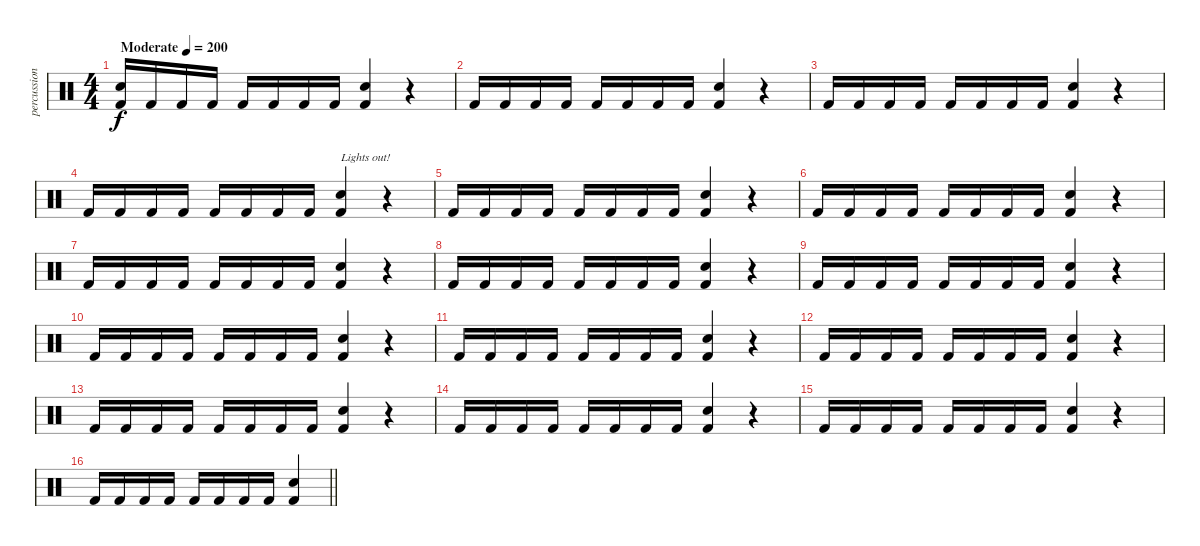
\track ("percussion" "percussion") {instrument percussion}
\staff {score}
\articulation defaults
\ts (4 4)
\tempo (200 "Moderate")
\clef neutral
\ks c
("Kick (hit) 2" "Electric Snare (hit)").16{dy f} "Kick (hit) 2".16 "Kick (hit) 2".16 "Kick (hit) 2".16 "Kick (hit) 2".16 "Kick (hit) 2".16 "Kick (hit) 2".16 "Kick (hit) 2".16 ("Kick (hit) 2" "Electric Snare (hit)").4 r.4 |
"Kick (hit) 2".16 "Kick (hit) 2".16 "Kick (hit) 2".16 "Kick (hit) 2".16 "Kick (hit) 2".16 "Kick (hit) 2".16 "Kick (hit) 2".16 "Kick (hit) 2".16 ("Kick (hit) 2" "Electric Snare (hit)").4 r.4 |
"Kick (hit) 2".16 "Kick (hit) 2".16 "Kick (hit) 2".16 "Kick (hit) 2".16 "Kick (hit) 2".16 "Kick (hit) 2".16 "Kick (hit) 2".16 "Kick (hit) 2".16 ("Kick (hit) 2" "Electric Snare (hit)").4 r.4 |
"Kick (hit) 2".16 "Kick (hit) 2".16 "Kick (hit) 2".16 "Kick (hit) 2".16 "Kick (hit) 2".16 "Kick (hit) 2".16 "Kick (hit) 2".16 "Kick (hit) 2".16 ("Kick (hit) 2" "Electric Snare (hit)").4{txt "Lights out!"} r.4 |
"Kick (hit) 2".16 "Kick (hit) 2".16 "Kick (hit) 2".16 "Kick (hit) 2".16 "Kick (hit) 2".16 "Kick (hit) 2".16 "Kick (hit) 2".16 "Kick (hit) 2".16 ("Kick (hit) 2" "Electric Snare (hit)").4 r.4 |
"Kick (hit) 2".16 "Kick (hit) 2".16 "Kick (hit) 2".16 "Kick (hit) 2".16 "Kick (hit) 2".16 "Kick (hit) 2".16 "Kick (hit) 2".16 "Kick (hit) 2".16 ("Kick (hit) 2" "Electric Snare (hit)").4 r.4 |
"Kick (hit) 2".16 "Kick (hit) 2".16 "Kick (hit) 2".16 "Kick (hit) 2".16 "Kick (hit) 2".16 "Kick (hit) 2".16 "Kick (hit) 2".16 "Kick (hit) 2".16 ("Kick (hit) 2" "Electric Snare (hit)").4 r.4 |
"Kick (hit) 2".16 "Kick (hit) 2".16 "Kick (hit) 2".16 "Kick (hit) 2".16 "Kick (hit) 2".16 "Kick (hit) 2".16 "Kick (hit) 2".16 "Kick (hit) 2".16 ("Kick (hit) 2" "Electric Snare (hit)").4 r.4 |
"Kick (hit) 2".16 "Kick (hit) 2".16 "Kick (hit) 2".16 "Kick (hit) 2".16 "Kick (hit) 2".16 "Kick (hit) 2".16 "Kick (hit) 2".16 "Kick (hit) 2".16 ("Kick (hit) 2" "Electric Snare (hit)").4 r.4 |
"Kick (hit) 2".16 "Kick (hit) 2".16 "Kick (hit) 2".16 "Kick (hit) 2".16 "Kick (hit) 2".16 "Kick (hit) 2".16 "Kick (hit) 2".16 "Kick (hit) 2".16 ("Kick (hit) 2" "Electric Snare (hit)").4 r.4 |
"Kick (hit) 2".16 "Kick (hit) 2".16 "Kick (hit) 2".16 "Kick (hit) 2".16 "Kick (hit) 2".16 "Kick (hit) 2".16 "Kick (hit) 2".16 "Kick (hit) 2".16 ("Kick (hit) 2" "Electric Snare (hit)").4 r.4 |
"Kick (hit) 2".16 "Kick (hit) 2".16 "Kick (hit) 2".16 "Kick (hit) 2".16 "Kick (hit) 2".16 "Kick (hit) 2".16 "Kick (hit) 2".16 "Kick (hit) 2".16 ("Kick (hit) 2" "Electric Snare (hit)").4 r.4 |
"Kick (hit) 2".16 "Kick (hit) 2".16 "Kick (hit) 2".16 "Kick (hit) 2".16 "Kick (hit) 2".16 "Kick (hit) 2".16 "Kick (hit) 2".16 "Kick (hit) 2".16 ("Kick (hit) 2" "Electric Snare (hit)").4 r.4 |
"Kick (hit) 2".16 "Kick (hit) 2".16 "Kick (hit) 2".16 "Kick (hit) 2".16 "Kick (hit) 2".16 "Kick (hit) 2".16 "Kick (hit) 2".16 "Kick (hit) 2".16 ("Kick (hit) 2" "Electric Snare (hit)").4 r.4 |
"Kick (hit) 2".16 "Kick (hit) 2".16 "Kick (hit) 2".16 "Kick (hit) 2".16 "Kick (hit) 2".16 "Kick (hit) 2".16 "Kick (hit) 2".16 "Kick (hit) 2".16 ("Kick (hit) 2" "Electric Snare (hit)").4 r.4 |
\barLineRight lightlight "Kick (hit) 2".16 "Kick (hit) 2".16 "Kick (hit) 2".16 "Kick (hit) 2".16 "Kick (hit) 2".16 "Kick (hit) 2".16 "Kick (hit) 2".16 "Kick (hit) 2".16
("Kick (hit) 2" "Electric Snare (hit)").4
